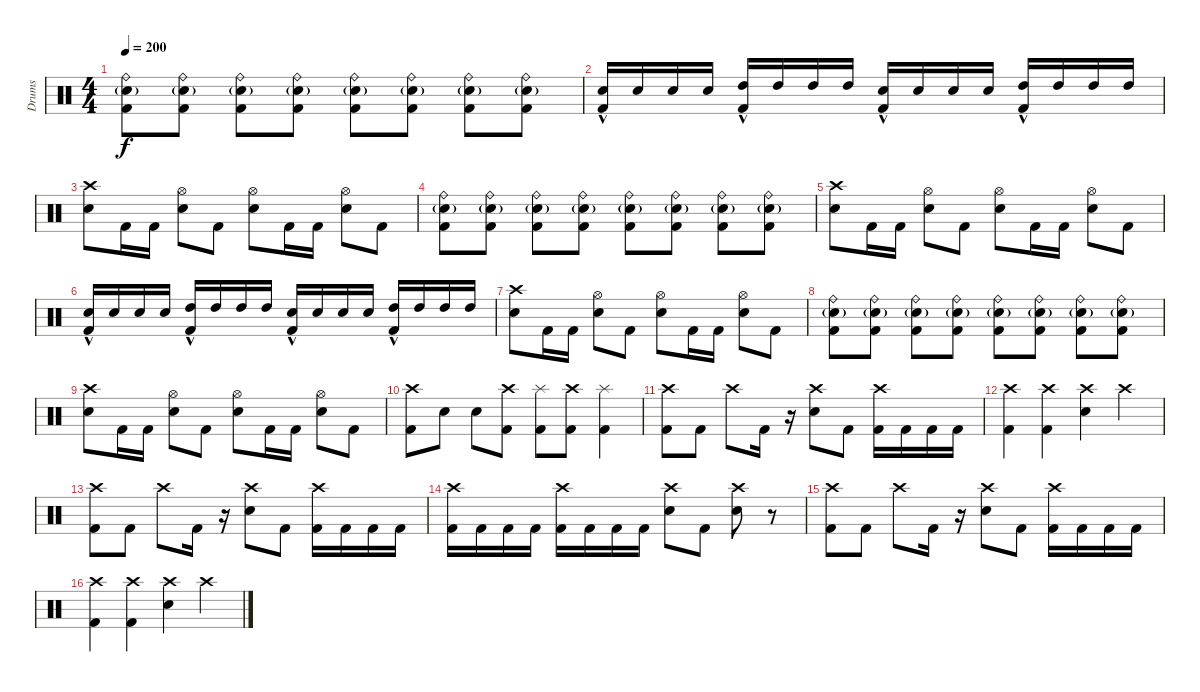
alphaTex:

\track ("Drums" "Drums") {instrument percussion}
\staff {score}
\articulation defaults
\ts (4 4)
\tempo 200
\clef neutral
\ks c
("Ride (bell)" "Snare (hit) 2"{g} "Kick (hit) 2").8{dy f} ("Ride (bell)" "Snare (hit) 2"{g} "Kick (hit) 2").8 ("Ride (bell)" "Snare (hit) 2"{g} "Kick (hit) 2").8 ("Ride (bell)" "Snare (hit) 2"{g} "Kick (hit) 2").8 ("Ride (bell)" "Snare (hit) 2"{g} "Kick (hit) 2").8 ("Ride (bell)" "Snare (hit) 2"{g} "Kick (hit) 2").8 ("Ride (bell)" "Snare (hit) 2"{g} "Kick (hit) 2").8 ("Ride (bell)" "Snare (hit) 2"{g} "Kick (hit) 2").8 |
("Snare (hit) 2"{hac} "Kick (hit) 2").16 "Snare (hit) 2".16 "Snare (hit) 2".16 "Snare (hit) 2".16 ("High Tom (hit)"{hac} "Kick (hit) 2").16 "High Tom (hit)".16 "High Tom (hit)".16 "High Tom (hit)".16 ("Snare (hit) 2"{hac} "Kick (hit) 2").16 "Snare (hit) 2".16 "Snare (hit) 2".16 "Snare (hit) 2".16 ("High Tom (hit)"{hac} "Kick (hit) 2").16 "High Tom (hit)".16 "High Tom (hit)".16 "High Tom (hit)".16 |
("Crash high (hit)" "Snare (hit) 2").8 "Kick (hit) 2".16 "Kick (hit) 2".16 ("Hi-Hat (open)" "Snare (hit) 2").8 "Kick (hit) 2".8 ("Hi-Hat (open)" "Snare (hit) 2").8 "Kick (hit) 2".16 "Kick (hit) 2".16 ("Hi-Hat (open)" "Snare (hit) 2").8 "Kick (hit) 2".8 |
("Ride (bell)" "Snare (hit) 2"{g} "Kick (hit) 2").8 ("Ride (bell)" "Snare (hit) 2"{g} "Kick (hit) 2").8 ("Ride (bell)" "Snare (hit) 2"{g} "Kick (hit) 2").8 ("Ride (bell)" "Snare (hit) 2"{g} "Kick (hit) 2").8 ("Ride (bell)" "Snare (hit) 2"{g} "Kick (hit) 2").8 ("Ride (bell)" "Snare (hit) 2"{g} "Kick (hit) 2").8 ("Ride (bell)" "Snare (hit) 2"{g} "Kick (hit) 2").8 ("Ride (bell)" "Snare (hit) 2"{g} "Kick (hit) 2").8 |
("Crash high (hit)" "Snare (hit) 2").8 "Kick (hit) 2".16 "Kick (hit) 2".16 ("Hi-Hat (open)" "Snare (hit) 2").8 "Kick (hit) 2".8 ("Hi-Hat (open)" "Snare (hit) 2").8 "Kick (hit) 2".16 "Kick (hit) 2".16 ("Hi-Hat (open)" "Snare (hit) 2").8 "Kick (hit) 2".8 |
("Snare (hit) 2"{hac} "Kick (hit) 2").16 "Snare (hit) 2".16 "Snare (hit) 2".16 "Snare (hit) 2".16 ("High Tom (hit)"{hac} "Kick (hit) 2").16 "High Tom (hit)".16 "High Tom (hit)".16 "High Tom (hit)".16 ("Snare (hit) 2"{hac} "Kick (hit) 2").16 "Snare (hit) 2".16 "Snare (hit) 2".16 "Snare (hit) 2".16 ("High Tom (hit)"{hac} "Kick (hit) 2").16 "High Tom (hit)".16 "High Tom (hit)".16 "High Tom (hit)".16 |
("Crash high (hit)" "Snare (hit) 2").8 "Kick (hit) 2".16 "Kick (hit) 2".16 ("Hi-Hat (open)" "Snare (hit) 2").8 "Kick (hit) 2".8 ("Hi-Hat (open)" "Snare (hit) 2").8 "Kick (hit) 2".16 "Kick (hit) 2".16 ("Hi-Hat (open)" "Snare (hit) 2").8 "Kick (hit) 2".8 |
("Ride (bell)" "Snare (hit) 2"{g} "Kick (hit) 2").8 ("Ride (bell)" "Snare (hit) 2"{g} "Kick (hit) 2").8 ("Ride (bell)" "Snare (hit) 2"{g} "Kick (hit) 2").8 ("Ride (bell)" "Snare (hit) 2"{g} "Kick (hit) 2").8 ("Ride (bell)" "Snare (hit) 2"{g} "Kick (hit) 2").8 ("Ride (bell)" "Snare (hit) 2"{g} "Kick (hit) 2").8 ("Ride (bell)" "Snare (hit) 2"{g} "Kick (hit) 2").8 ("Ride (bell)" "Snare (hit) 2"{g} "Kick (hit) 2").8 |
("Crash high (hit)" "Snare (hit) 2").8 "Kick (hit) 2".16 "Kick (hit) 2".16 ("Hi-Hat (open)" "Snare (hit) 2").8 "Kick (hit) 2".8 ("Hi-Hat (open)" "Snare (hit) 2").8 "Kick (hit) 2".16 "Kick (hit) 2".16 ("Hi-Hat (open)" "Snare (hit) 2").8 "Kick (hit) 2".8 |
("Crash high (hit)" "Kick (hit) 2").8 "Snare (hit) 2".8 "Snare (hit) 2".8 ("Crash high (hit)" "Kick (hit) 2").8 ("Splash (hit)" "Kick (hit) 2").8 ("Crash high (hit)" "Kick (hit) 2").8 ("Splash (hit)" "Kick (hit) 2").4 |
("Crash high (hit)" "Kick (hit) 2").8 "Kick (hit) 2".8 "Crash high (hit)".8 "Kick (hit) 2".16 r.16 ("Crash high (hit)" "Snare (hit) 2").8 "Kick (hit) 2".8 ("Crash high (hit)" "Kick (hit) 2").16 "Kick (hit) 2".16 "Kick (hit) 2".16 "Kick (hit) 2".16 |
("Crash high (hit)" "Kick (hit) 2").4 ("Crash high (hit)" "Kick (hit) 2").4 ("Crash high (hit)" "Snare (hit) 2").4 "Crash high (hit)".4 |
("Crash high (hit)" "Kick (hit) 2").8 "Kick (hit) 2".8 "Crash high (hit)".8 "Kick (hit) 2".16 r.16 ("Crash high (hit)" "Snare (hit) 2").8 "Kick (hit) 2".8 ("Crash high (hit)" "Kick (hit) 2").16 "Kick (hit) 2".16 "Kick (hit) 2".16 "Kick (hit) 2".16 |
("Crash high (hit)" "Kick (hit) 2").16 "Kick (hit) 2".16 "Kick (hit) 2".16 "Kick (hit) 2".16 ("Crash high (hit)" "Kick (hit) 2").16 "Kick (hit) 2".16 "Kick (hit) 2".16 "Kick (hit) 2".16 ("Crash high (hit)" "Snare (hit) 2").8 "Kick (hit) 2".8 ("Crash high (hit)" "Snare (hit) 2").8 r.8 |
("Crash high (hit)" "Kick (hit) 2").8 "Kick (hit) 2".8 "Crash high (hit)".8 "Kick (hit) 2".16 r.16 ("Crash high (hit)" "Snare (hit) 2").8 "Kick (hit) 2".8 ("Crash high (hit)" "Kick (hit) 2").16 "Kick (hit) 2".16 "Kick (hit) 2".16 "Kick (hit) 2".16 |
("Crash high (hit)" "Kick (hit) 2").4 ("Crash high (hit)" "Kick (hit) 2").4 ("Crash high (hit)" "Snare (hit) 2").4 "Crash high (hit)".4
